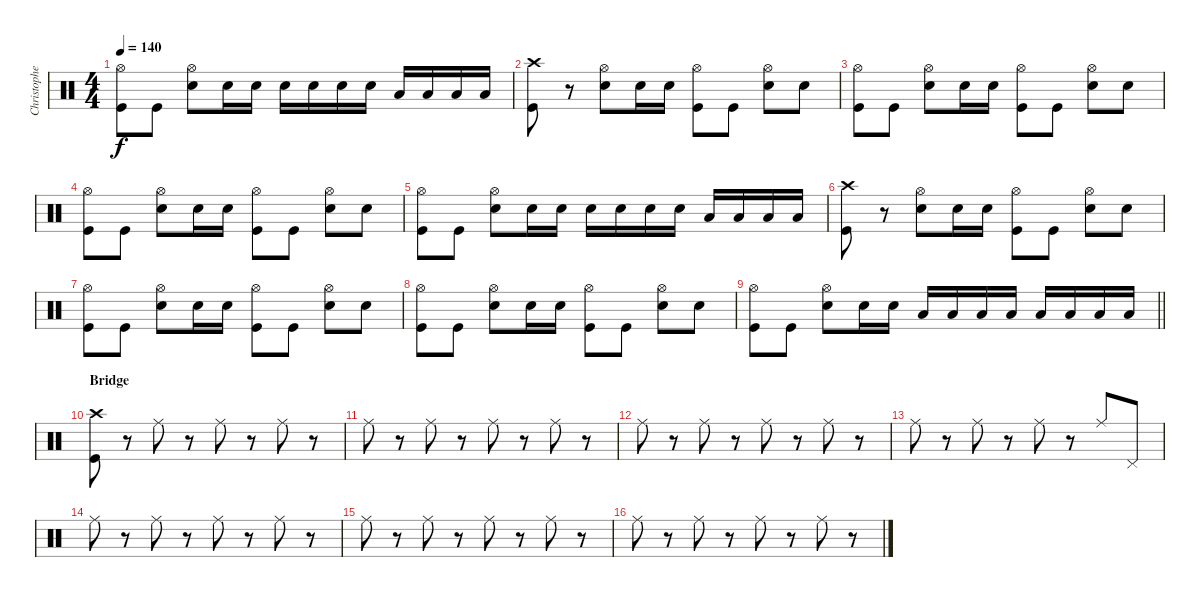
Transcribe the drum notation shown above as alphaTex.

\track ("Christopher - Drums" "Christophe") {instrument percussion}
\staff {score}
\articulation defaults
\ts (4 4)
\tempo 140
\clef neutral
\ks c
("Hi-Hat (open)" "Kick (hit)").8{dy f} "Kick (hit)".8 ("Hi-Hat (open)" "Snare (hit) 2").8 "Snare (hit) 2".16 "Snare (hit) 2".16 "Snare (hit) 2".16 "Snare (hit) 2".16 "Snare (hit) 2".16 "Snare (hit) 2".16 "Low Tom (hit)".16 "Low Tom (hit)".16 "Low Tom (hit)".16 "Low Tom (hit)".16 |
("Crash high (hit)" "Kick (hit)").8 r.8 ("Hi-Hat (open)" "Snare (hit) 2").8 "Snare (hit) 2".16 "Snare (hit) 2".16 ("Hi-Hat (open)" "Kick (hit)").8 "Kick (hit)".8 ("Hi-Hat (open)" "Snare (hit) 2").8 "Snare (hit) 2".8 |
("Hi-Hat (open)" "Kick (hit)").8 "Kick (hit)".8 ("Hi-Hat (open)" "Snare (hit) 2").8 "Snare (hit) 2".16 "Snare (hit) 2".16 ("Hi-Hat (open)" "Kick (hit)").8 "Kick (hit)".8 ("Hi-Hat (open)" "Snare (hit) 2").8 "Snare (hit) 2".8 |
("Hi-Hat (open)" "Kick (hit)").8 "Kick (hit)".8 ("Hi-Hat (open)" "Snare (hit) 2").8 "Snare (hit) 2".16 "Snare (hit) 2".16 ("Hi-Hat (open)" "Kick (hit)").8 "Kick (hit)".8 ("Hi-Hat (open)" "Snare (hit) 2").8 "Snare (hit) 2".8 |
("Hi-Hat (open)" "Kick (hit)").8 "Kick (hit)".8 ("Hi-Hat (open)" "Snare (hit) 2").8 "Snare (hit) 2".16 "Snare (hit) 2".16 "Snare (hit) 2".16 "Snare (hit) 2".16 "Snare (hit) 2".16 "Snare (hit) 2".16 "Low Tom (hit)".16 "Low Tom (hit)".16 "Low Tom (hit)".16 "Low Tom (hit)".16 |
("Crash high (hit)" "Kick (hit)").8 r.8 ("Hi-Hat (open)" "Snare (hit) 2").8 "Snare (hit) 2".16 "Snare (hit) 2".16 ("Hi-Hat (open)" "Kick (hit)").8 "Kick (hit)".8 ("Hi-Hat (open)" "Snare (hit) 2").8 "Snare (hit) 2".8 |
("Hi-Hat (open)" "Kick (hit)").8 "Kick (hit)".8 ("Hi-Hat (open)" "Snare (hit) 2").8 "Snare (hit) 2".16 "Snare (hit) 2".16 ("Hi-Hat (open)" "Kick (hit)").8 "Kick (hit)".8 ("Hi-Hat (open)" "Snare (hit) 2").8 "Snare (hit) 2".8 |
("Hi-Hat (open)" "Kick (hit)").8 "Kick (hit)".8 ("Hi-Hat (open)" "Snare (hit) 2").8 "Snare (hit) 2".16 "Snare (hit) 2".16 ("Hi-Hat (open)" "Kick (hit)").8 "Kick (hit)".8 ("Hi-Hat (open)" "Snare (hit) 2").8 "Snare (hit) 2".8 |
\barLineRight lightlight
("Hi-Hat (open)" "Kick (hit)").8 "Kick (hit)".8 ("Hi-Hat (open)" "Snare (hit) 2").8 "Snare (hit) 2".16 "Snare (hit) 2".16 "Low Tom (hit)".16 "Low Tom (hit)".16 "Low Tom (hit)".16 "Low Tom (hit)".16 "Low Floor Tom (hit)".16 "Low Floor Tom (hit)".16 "Low Floor Tom (hit)".16 "Low Floor Tom (hit)".16 |
\section ("" "Bridge")
("Crash high (hit)" "Kick (hit)").8 r.8 "Ride (middle)".8 r.8 "Ride (middle)".8 r.8 "Ride (middle)".8 r.8 |
"Ride (middle)".8 r.8 "Ride (middle)".8 r.8 "Ride (middle)".8 r.8 "Ride (middle)".8 r.8 |
"Ride (middle)".8 r.8 "Ride (middle)".8 r.8 "Ride (middle)".8 r.8 "Ride (middle)".8 r.8 |
"Ride (middle)".8 r.8 "Ride (middle)".8 r.8 "Ride (middle)".8 r.8 "Ride (middle)".8 "Pedal Hi-Hat (hit)".8 |
"Ride (middle)".8 r.8 "Ride (middle)".8 r.8 "Ride (middle)".8 r.8 "Ride (middle)".8 r.8 |
"Ride (middle)".8 r.8 "Ride (middle)".8 r.8 "Ride (middle)".8 r.8 "Ride (middle)".8 r.8 |
"Ride (middle)".8 r.8 "Ride (middle)".8 r.8 "Ride (middle)".8 r.8 "Ride (middle)".8 r.8
